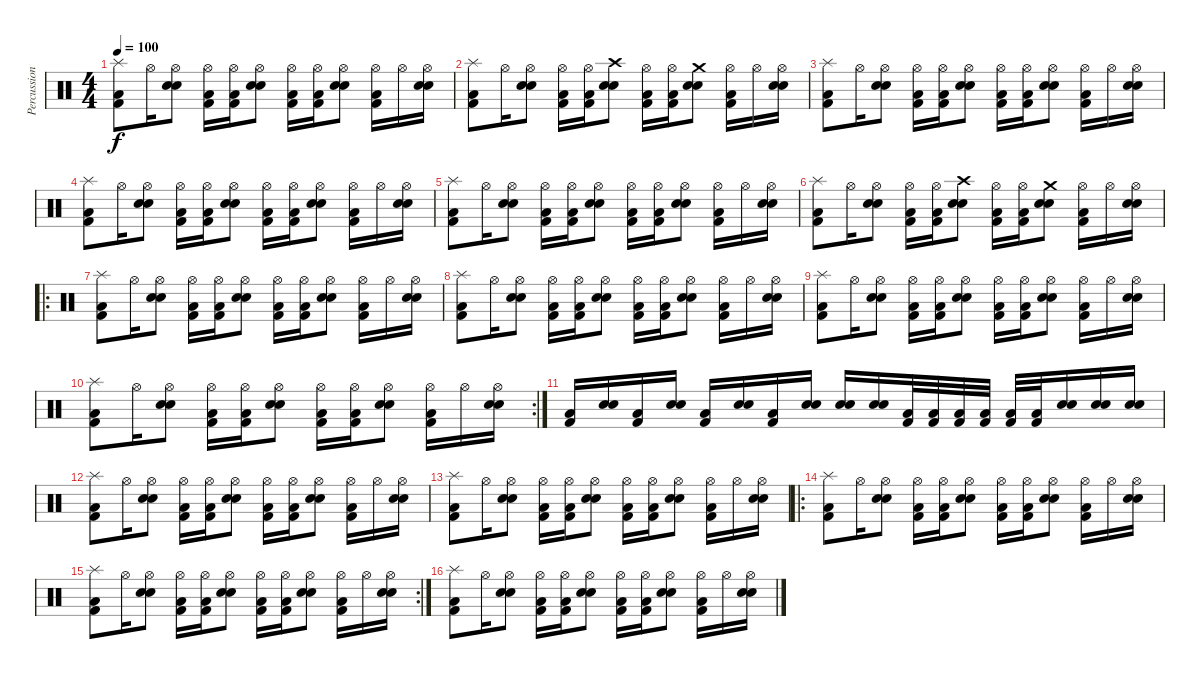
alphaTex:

\track ("Percussions" "Percussion") {instrument percussion}
\staff {score}
\articulation defaults
\ts (4 4)
\tempo 100
\clef neutral
\ks c
("Splash (hit)" "Kick (hit) 2" "Low Floor Tom (hit)").8{dy f} "Hi-Hat (open)".16 ("Hi-Hat (open)" "Snare (hit) 2" "Electric Snare (hit)").8 ("Hi-Hat (open)" "Kick (hit) 2" "Low Floor Tom (hit)").16 ("Hi-Hat (open)" "Kick (hit) 2" "Low Floor Tom (hit)").16 ("Hi-Hat (open)" "Snare (hit) 2" "Electric Snare (hit)").8 ("Hi-Hat (open)" "Kick (hit) 2" "Low Floor Tom (hit)").16 ("Hi-Hat (open)" "Kick (hit) 2" "Low Floor Tom (hit)").16 ("Hi-Hat (open)" "Snare (hit) 2" "Electric Snare (hit)").8 ("Hi-Hat (open)" "Kick (hit) 2" "Low Floor Tom (hit)").16 "Hi-Hat (open)".16 ("Hi-Hat (open)" "Snare (hit) 2" "Electric Snare (hit)").16 |
("Splash (hit)" "Kick (hit) 2" "Low Floor Tom (hit)").8 "Hi-Hat (open)".16 ("Hi-Hat (open)" "Snare (hit) 2" "Electric Snare (hit)").8 ("Hi-Hat (open)" "Kick (hit) 2" "Low Floor Tom (hit)").16 ("Hi-Hat (open)" "Kick (hit) 2" "Low Floor Tom (hit)").16 ("Crash high (hit)" "Snare (hit) 2" "Electric Snare (hit)").8 ("Hi-Hat (open)" "Kick (hit) 2" "Low Floor Tom (hit)").16 ("Hi-Hat (open)" "Kick (hit) 2" "Low Floor Tom (hit)").16 ("Crash medium (hit)" "Snare (hit) 2" "Electric Snare (hit)").8 ("Hi-Hat (open)" "Kick (hit) 2" "Low Floor Tom (hit)").16 "Hi-Hat (open)".16 ("Hi-Hat (open)" "Snare (hit) 2" "Electric Snare (hit)").16 |
("Splash (hit)" "Kick (hit) 2" "Low Floor Tom (hit)").8 "Hi-Hat (open)".16 ("Hi-Hat (open)" "Snare (hit) 2" "Electric Snare (hit)").8 ("Hi-Hat (open)" "Kick (hit) 2" "Low Floor Tom (hit)").16 ("Hi-Hat (open)" "Kick (hit) 2" "Low Floor Tom (hit)").16 ("Hi-Hat (open)" "Snare (hit) 2" "Electric Snare (hit)").8 ("Hi-Hat (open)" "Kick (hit) 2" "Low Floor Tom (hit)").16 ("Hi-Hat (open)" "Kick (hit) 2" "Low Floor Tom (hit)").16 ("Hi-Hat (open)" "Snare (hit) 2" "Electric Snare (hit)").8 ("Hi-Hat (open)" "Kick (hit) 2" "Low Floor Tom (hit)").16 "Hi-Hat (open)".16 ("Hi-Hat (open)" "Snare (hit) 2" "Electric Snare (hit)").16 |
("Splash (hit)" "Kick (hit) 2" "Low Floor Tom (hit)").8 "Hi-Hat (open)".16 ("Hi-Hat (open)" "Snare (hit) 2" "Electric Snare (hit)").8 ("Hi-Hat (open)" "Kick (hit) 2" "Low Floor Tom (hit)").16 ("Hi-Hat (open)" "Kick (hit) 2" "Low Floor Tom (hit)").16 ("Hi-Hat (open)" "Snare (hit) 2" "Electric Snare (hit)").8 ("Hi-Hat (open)" "Kick (hit) 2" "Low Floor Tom (hit)").16 ("Hi-Hat (open)" "Kick (hit) 2" "Low Floor Tom (hit)").16 ("Hi-Hat (open)" "Snare (hit) 2" "Electric Snare (hit)").8 ("Hi-Hat (open)" "Kick (hit) 2" "Low Floor Tom (hit)").16 "Hi-Hat (open)".16 ("Hi-Hat (open)" "Snare (hit) 2" "Electric Snare (hit)").16 |
("Splash (hit)" "Kick (hit) 2" "Low Floor Tom (hit)").8 "Hi-Hat (open)".16 ("Hi-Hat (open)" "Snare (hit) 2" "Electric Snare (hit)").8 ("Hi-Hat (open)" "Kick (hit) 2" "Low Floor Tom (hit)").16 ("Hi-Hat (open)" "Kick (hit) 2" "Low Floor Tom (hit)").16 ("Hi-Hat (open)" "Snare (hit) 2" "Electric Snare (hit)").8 ("Hi-Hat (open)" "Kick (hit) 2" "Low Floor Tom (hit)").16 ("Hi-Hat (open)" "Kick (hit) 2" "Low Floor Tom (hit)").16 ("Hi-Hat (open)" "Snare (hit) 2" "Electric Snare (hit)").8 ("Hi-Hat (open)" "Kick (hit) 2" "Low Floor Tom (hit)").16 "Hi-Hat (open)".16 ("Hi-Hat (open)" "Snare (hit) 2" "Electric Snare (hit)").16 |
("Splash (hit)" "Kick (hit) 2" "Low Floor Tom (hit)").8 "Hi-Hat (open)".16 ("Hi-Hat (open)" "Snare (hit) 2" "Electric Snare (hit)").8 ("Hi-Hat (open)" "Kick (hit) 2" "Low Floor Tom (hit)").16 ("Hi-Hat (open)" "Kick (hit) 2" "Low Floor Tom (hit)").16 ("Crash high (hit)" "Snare (hit) 2" "Electric Snare (hit)").8 ("Hi-Hat (open)" "Kick (hit) 2" "Low Floor Tom (hit)").16 ("Hi-Hat (open)" "Kick (hit) 2" "Low Floor Tom (hit)").16 ("Crash medium (hit)" "Snare (hit) 2" "Electric Snare (hit)").8 ("Hi-Hat (open)" "Kick (hit) 2" "Low Floor Tom (hit)").16 "Hi-Hat (open)".16 ("Hi-Hat (open)" "Snare (hit) 2" "Electric Snare (hit)").16 |
\ro
("Splash (hit)" "Kick (hit) 2" "Low Floor Tom (hit)").8 "Hi-Hat (open)".16 ("Hi-Hat (open)" "Snare (hit) 2" "Electric Snare (hit)").8 ("Hi-Hat (open)" "Kick (hit) 2" "Low Floor Tom (hit)").16 ("Hi-Hat (open)" "Kick (hit) 2" "Low Floor Tom (hit)").16 ("Hi-Hat (open)" "Snare (hit) 2" "Electric Snare (hit)").8 ("Hi-Hat (open)" "Kick (hit) 2" "Low Floor Tom (hit)").16 ("Hi-Hat (open)" "Kick (hit) 2" "Low Floor Tom (hit)").16 ("Hi-Hat (open)" "Snare (hit) 2" "Electric Snare (hit)").8 ("Hi-Hat (open)" "Kick (hit) 2" "Low Floor Tom (hit)").16 "Hi-Hat (open)".16 ("Hi-Hat (open)" "Snare (hit) 2" "Electric Snare (hit)").16 |
("Splash (hit)" "Kick (hit) 2" "Low Floor Tom (hit)").8 "Hi-Hat (open)".16 ("Hi-Hat (open)" "Snare (hit) 2" "Electric Snare (hit)").8 ("Hi-Hat (open)" "Kick (hit) 2" "Low Floor Tom (hit)").16 ("Hi-Hat (open)" "Kick (hit) 2" "Low Floor Tom (hit)").16 ("Hi-Hat (open)" "Snare (hit) 2" "Electric Snare (hit)").8 ("Hi-Hat (open)" "Kick (hit) 2" "Low Floor Tom (hit)").16 ("Hi-Hat (open)" "Kick (hit) 2" "Low Floor Tom (hit)").16 ("Hi-Hat (open)" "Snare (hit) 2" "Electric Snare (hit)").8 ("Hi-Hat (open)" "Kick (hit) 2" "Low Floor Tom (hit)").16 "Hi-Hat (open)".16 ("Hi-Hat (open)" "Snare (hit) 2" "Electric Snare (hit)").16 |
("Splash (hit)" "Kick (hit) 2" "Low Floor Tom (hit)").8 "Hi-Hat (open)".16 ("Hi-Hat (open)" "Snare (hit) 2" "Electric Snare (hit)").8 ("Hi-Hat (open)" "Kick (hit) 2" "Low Floor Tom (hit)").16 ("Hi-Hat (open)" "Kick (hit) 2" "Low Floor Tom (hit)").16 ("Hi-Hat (open)" "Snare (hit) 2" "Electric Snare (hit)").8 ("Hi-Hat (open)" "Kick (hit) 2" "Low Floor Tom (hit)").16 ("Hi-Hat (open)" "Kick (hit) 2" "Low Floor Tom (hit)").16 ("Hi-Hat (open)" "Snare (hit) 2" "Electric Snare (hit)").8 ("Hi-Hat (open)" "Kick (hit) 2" "Low Floor Tom (hit)").16 "Hi-Hat (open)".16 ("Hi-Hat (open)" "Snare (hit) 2" "Electric Snare (hit)").16 |
\rc 2
("Splash (hit)" "Kick (hit) 2" "Low Floor Tom (hit)").8 "Hi-Hat (open)".16 ("Hi-Hat (open)" "Snare (hit) 2" "Electric Snare (hit)").8 ("Hi-Hat (open)" "Kick (hit) 2" "Low Floor Tom (hit)").16 ("Hi-Hat (open)" "Kick (hit) 2" "Low Floor Tom (hit)").16 ("Hi-Hat (open)" "Snare (hit) 2" "Electric Snare (hit)").8 ("Hi-Hat (open)" "Kick (hit) 2" "Low Floor Tom (hit)").16 ("Hi-Hat (open)" "Kick (hit) 2" "Low Floor Tom (hit)").16 ("Hi-Hat (open)" "Snare (hit) 2" "Electric Snare (hit)").8 ("Hi-Hat (open)" "Kick (hit) 2" "Low Floor Tom (hit)").16 "Hi-Hat (open)".16 ("Hi-Hat (open)" "Snare (hit) 2" "Electric Snare (hit)").16 |
("Kick (hit) 2" "Low Floor Tom (hit)").16 ("Snare (hit) 2" "Electric Snare (hit)").16 ("Kick (hit) 2" "Low Floor Tom (hit)").16 ("Snare (hit) 2" "Electric Snare (hit)").16 ("Kick (hit) 2" "Low Floor Tom (hit)").16 ("Snare (hit) 2" "Electric Snare (hit)").16 ("Kick (hit) 2" "Low Floor Tom (hit)").16 ("Snare (hit) 2" "Electric Snare (hit)").16 ("Snare (hit) 2" "Electric Snare (hit)").16 ("Snare (hit) 2" "Electric Snare (hit)").16 ("Kick (hit) 2" "Low Floor Tom (hit)").32 ("Kick (hit) 2" "Low Floor Tom (hit)").32 ("Kick (hit) 2" "Low Floor Tom (hit)").32 ("Kick (hit) 2" "Low Floor Tom (hit)").32 ("Kick (hit) 2" "Low Floor Tom (hit)").32 ("Kick (hit) 2" "Low Floor Tom (hit)").32 ("Snare (hit) 2" "Electric Snare (hit)").16 ("Snare (hit) 2" "Electric Snare (hit)").16 ("Snare (hit) 2" "Electric Snare (hit)").16 |
("Splash (hit)" "Kick (hit) 2" "Low Floor Tom (hit)").8 "Hi-Hat (open)".16 ("Hi-Hat (open)" "Snare (hit) 2" "Electric Snare (hit)").8 ("Hi-Hat (open)" "Kick (hit) 2" "Low Floor Tom (hit)").16 ("Hi-Hat (open)" "Kick (hit) 2" "Low Floor Tom (hit)").16 ("Hi-Hat (open)" "Snare (hit) 2" "Electric Snare (hit)").8 ("Hi-Hat (open)" "Kick (hit) 2" "Low Floor Tom (hit)").16 ("Hi-Hat (open)" "Kick (hit) 2" "Low Floor Tom (hit)").16 ("Hi-Hat (open)" "Snare (hit) 2" "Electric Snare (hit)").8 ("Hi-Hat (open)" "Kick (hit) 2" "Low Floor Tom (hit)").16 "Hi-Hat (open)".16 ("Hi-Hat (open)" "Snare (hit) 2" "Electric Snare (hit)").16 |
("Splash (hit)" "Kick (hit) 2" "Low Floor Tom (hit)").8 "Hi-Hat (open)".16 ("Hi-Hat (open)" "Snare (hit) 2" "Electric Snare (hit)").8 ("Hi-Hat (open)" "Kick (hit) 2" "Low Floor Tom (hit)").16 ("Hi-Hat (open)" "Kick (hit) 2" "Low Floor Tom (hit)").16 ("Hi-Hat (open)" "Snare (hit) 2" "Electric Snare (hit)").8 ("Hi-Hat (open)" "Kick (hit) 2" "Low Floor Tom (hit)").16 ("Hi-Hat (open)" "Kick (hit) 2" "Low Floor Tom (hit)").16 ("Hi-Hat (open)" "Snare (hit) 2" "Electric Snare (hit)").8 ("Hi-Hat (open)" "Kick (hit) 2" "Low Floor Tom (hit)").16 "Hi-Hat (open)".16 ("Hi-Hat (open)" "Snare (hit) 2" "Electric Snare (hit)").16 |
\ro
("Splash (hit)" "Kick (hit) 2" "Low Floor Tom (hit)").8 "Hi-Hat (open)".16 ("Hi-Hat (open)" "Snare (hit) 2" "Electric Snare (hit)").8 ("Hi-Hat (open)" "Kick (hit) 2" "Low Floor Tom (hit)").16 ("Hi-Hat (open)" "Kick (hit) 2" "Low Floor Tom (hit)").16 ("Hi-Hat (open)" "Snare (hit) 2" "Electric Snare (hit)").8 ("Hi-Hat (open)" "Kick (hit) 2" "Low Floor Tom (hit)").16 ("Hi-Hat (open)" "Kick (hit) 2" "Low Floor Tom (hit)").16 ("Hi-Hat (open)" "Snare (hit) 2" "Electric Snare (hit)").8 ("Hi-Hat (open)" "Kick (hit) 2" "Low Floor Tom (hit)").16 "Hi-Hat (open)".16 ("Hi-Hat (open)" "Snare (hit) 2" "Electric Snare (hit)").16 |
\rc 2
("Splash (hit)" "Kick (hit) 2" "Low Floor Tom (hit)").8 "Hi-Hat (open)".16 ("Hi-Hat (open)" "Snare (hit) 2" "Electric Snare (hit)").8 ("Hi-Hat (open)" "Kick (hit) 2" "Low Floor Tom (hit)").16 ("Hi-Hat (open)" "Kick (hit) 2" "Low Floor Tom (hit)").16 ("Hi-Hat (open)" "Snare (hit) 2" "Electric Snare (hit)").8 ("Hi-Hat (open)" "Kick (hit) 2" "Low Floor Tom (hit)").16 ("Hi-Hat (open)" "Kick (hit) 2" "Low Floor Tom (hit)").16 ("Hi-Hat (open)" "Snare (hit) 2" "Electric Snare (hit)").8 ("Hi-Hat (open)" "Kick (hit) 2" "Low Floor Tom (hit)").16 "Hi-Hat (open)".16 ("Hi-Hat (open)" "Snare (hit) 2" "Electric Snare (hit)").16 |
("Splash (hit)" "Kick (hit) 2" "Low Floor Tom (hit)").8 "Hi-Hat (open)".16 ("Hi-Hat (open)" "Snare (hit) 2" "Electric Snare (hit)").8 ("Hi-Hat (open)" "Kick (hit) 2" "Low Floor Tom (hit)").16 ("Hi-Hat (open)" "Kick (hit) 2" "Low Floor Tom (hit)").16 ("Hi-Hat (open)" "Snare (hit) 2" "Electric Snare (hit)").8 ("Hi-Hat (open)" "Kick (hit) 2" "Low Floor Tom (hit)").16 ("Hi-Hat (open)" "Kick (hit) 2" "Low Floor Tom (hit)").16 ("Hi-Hat (open)" "Snare (hit) 2" "Electric Snare (hit)").8 ("Hi-Hat (open)" "Kick (hit) 2" "Low Floor Tom (hit)").16 "Hi-Hat (open)".16 ("Hi-Hat (open)" "Snare (hit) 2" "Electric Snare (hit)").16
